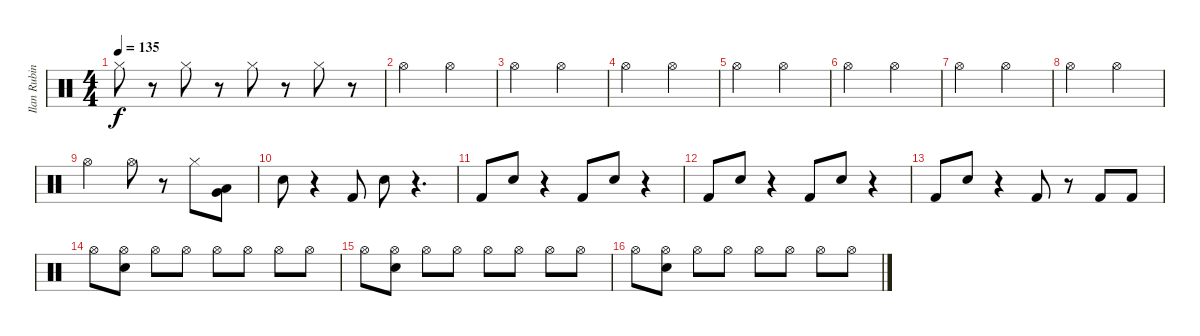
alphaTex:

\track ("Ilan Rubin" "Ilan Rubin") {instrument percussion}
\staff {score}
\articulation defaults
\ts (4 4)
\tempo 135
\clef neutral
\ks c "Hi-Hat (closed)".8{dy f}
r.8 "Hi-Hat (closed)".8 r.8 "Hi-Hat (closed)".8 r.8 "Hi-Hat (closed)".8 r.8 |
"Hi-Hat (open)".2 "Hi-Hat (open)".2 |
"Hi-Hat (open)".2 "Hi-Hat (open)".2 |
"Hi-Hat (open)".2 "Hi-Hat (open)".2 |
"Hi-Hat (open)".2 "Hi-Hat (open)".2 |
"Hi-Hat (open)".2 "Hi-Hat (open)".2 |
"Hi-Hat (open)".2 "Hi-Hat (open)".2 |
"Hi-Hat (open)".2 "Hi-Hat (open)".2 |
"Hi-Hat (open)".2 "Hi-Hat (open)".8 r.8 "Hi-Hat (closed)".8 ("Very Low Tom (hit)" "Low Tom (hit)").8 |
"Electric Snare (hit)".8 r.4 "Kick (hit) 2".8 "Electric Snare (hit)".8 r.4{d} |
"Kick (hit) 2".8 "Electric Snare (hit)".8 r.4 "Kick (hit) 2".8 "Electric Snare (hit)".8 r.4 |
"Kick (hit) 2".8 "Electric Snare (hit)".8 r.4 "Kick (hit) 2".8 "Electric Snare (hit)".8 r.4 |
"Kick (hit) 2".8 "Electric Snare (hit)".8 r.4 "Kick (hit) 2".8 r.8 "Kick (hit) 2".8 "Kick (hit) 2".8 |
"Hi-Hat (open)".8 ("Hi-Hat (open)" "Electric Snare (hit)").8 "Hi-Hat (open)".8 "Hi-Hat (open)".8 "Hi-Hat (open)".8 "Hi-Hat (open)".8 "Hi-Hat (open)".8 "Hi-Hat (open)".8 |
"Hi-Hat (open)".8 ("Hi-Hat (open)" "Electric Snare (hit)").8 "Hi-Hat (open)".8 "Hi-Hat (open)".8 "Hi-Hat (open)".8 "Hi-Hat (open)".8 "Hi-Hat (open)".8 "Hi-Hat (open)".8 |
"Hi-Hat (open)".8 ("Hi-Hat (open)" "Electric Snare (hit)").8 "Hi-Hat (open)".8 "Hi-Hat (open)".8 "Hi-Hat (open)".8 "Hi-Hat (open)".8 "Hi-Hat (open)".8 "Hi-Hat (open)".8
